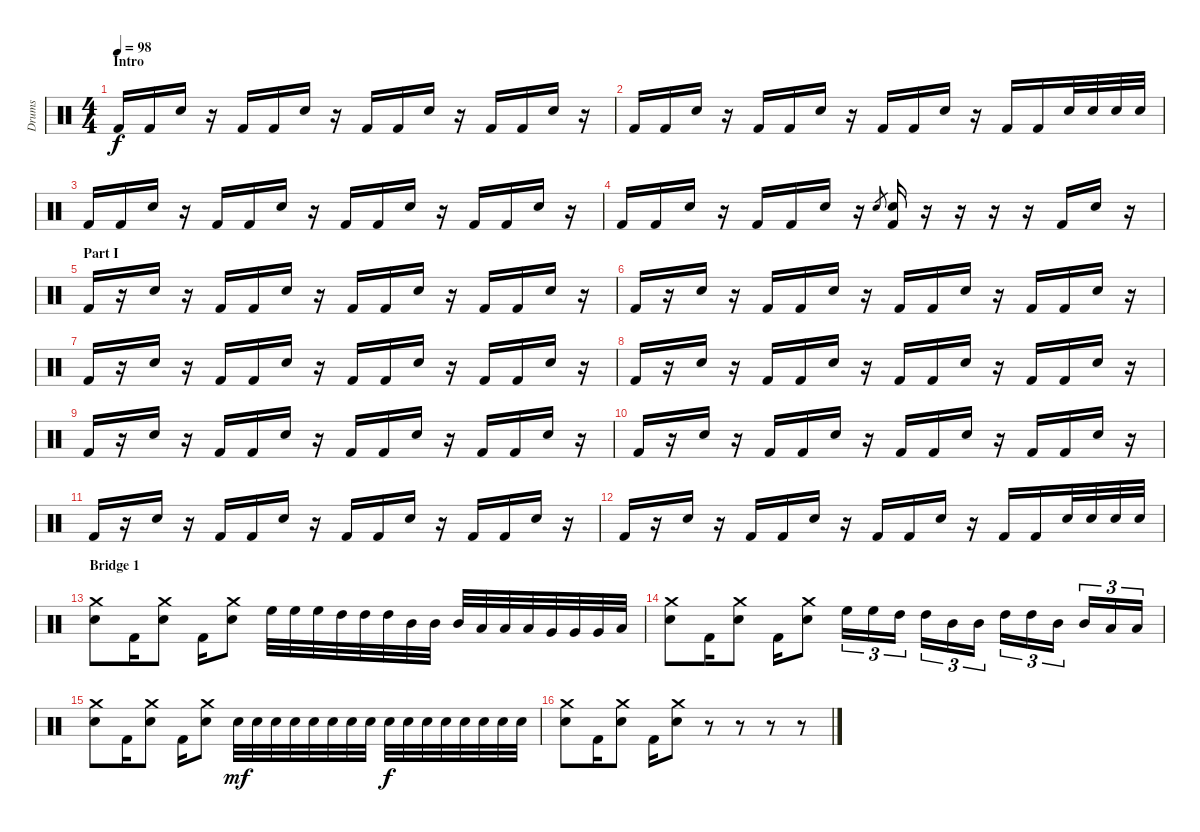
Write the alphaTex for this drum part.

\track ("Drums" "Drums") {instrument percussion}
\staff {score}
\articulation defaults
\ts (4 4)
\section ("" "Intro")
\tempo 98
\clef neutral
\ks c "Kick (hit) 2".16{dy f} "Kick (hit) 2".16 "Electric Snare (hit)".16
r.16 "Kick (hit) 2".16 "Kick (hit) 2".16 "Electric Snare (hit)".16 r.16 "Kick (hit) 2".16 "Kick (hit) 2".16 "Electric Snare (hit)".16 r.16 "Kick (hit) 2".16 "Kick (hit) 2".16 "Electric Snare (hit)".16 r.16 |
"Kick (hit) 2".16 "Kick (hit) 2".16 "Electric Snare (hit)".16 r.16 "Kick (hit) 2".16 "Kick (hit) 2".16 "Electric Snare (hit)".16 r.16 "Kick (hit) 2".16 "Kick (hit) 2".16 "Electric Snare (hit)".16 r.16 "Kick (hit) 2".16 "Kick (hit) 2".16 "Electric Snare (hit)".32 "Electric Snare (hit)".32 "Electric Snare (hit)".32 "Electric Snare (hit)".32 |
"Kick (hit) 2".16 "Kick (hit) 2".16 "Electric Snare (hit)".16 r.16 "Kick (hit) 2".16 "Kick (hit) 2".16 "Electric Snare (hit)".16 r.16 "Kick (hit) 2".16 "Kick (hit) 2".16 "Electric Snare (hit)".16 r.16 "Kick (hit) 2".16 "Kick (hit) 2".16 "Electric Snare (hit)".16 r.16 |
"Kick (hit) 2".16 "Kick (hit) 2".16 "Electric Snare (hit)".16 r.16 "Kick (hit) 2".16 "Kick (hit) 2".16 "Electric Snare (hit)".16 r.16 "Electric Snare (hit)".8{gr} ("Electric Snare (hit)" "Kick (hit) 2").16 r.16 r.16 r.16 r.16 "Kick (hit) 2".16 "Electric Snare (hit)".16 r.16 |
\section ("" "Part I")
"Kick (hit) 2".16 r.16 "Electric Snare (hit)".16 r.16 "Kick (hit) 2".16 "Kick (hit) 2".16 "Electric Snare (hit)".16 r.16 "Kick (hit) 2".16 "Kick (hit) 2".16 "Electric Snare (hit)".16 r.16 "Kick (hit) 2".16 "Kick (hit) 2".16 "Electric Snare (hit)".16 r.16 |
"Kick (hit) 2".16 r.16 "Electric Snare (hit)".16 r.16 "Kick (hit) 2".16 "Kick (hit) 2".16 "Electric Snare (hit)".16 r.16 "Kick (hit) 2".16 "Kick (hit) 2".16 "Electric Snare (hit)".16 r.16 "Kick (hit) 2".16 "Kick (hit) 2".16 "Electric Snare (hit)".16 r.16 |
"Kick (hit) 2".16 r.16 "Electric Snare (hit)".16 r.16 "Kick (hit) 2".16 "Kick (hit) 2".16 "Electric Snare (hit)".16 r.16 "Kick (hit) 2".16 "Kick (hit) 2".16 "Electric Snare (hit)".16 r.16 "Kick (hit) 2".16 "Kick (hit) 2".16 "Electric Snare (hit)".16 r.16 |
"Kick (hit) 2".16 r.16 "Electric Snare (hit)".16 r.16 "Kick (hit) 2".16 "Kick (hit) 2".16 "Electric Snare (hit)".16 r.16 "Kick (hit) 2".16 "Kick (hit) 2".16 "Electric Snare (hit)".16 r.16 "Kick (hit) 2".16 "Kick (hit) 2".16 "Electric Snare (hit)".16 r.16 |
"Kick (hit) 2".16 r.16 "Electric Snare (hit)".16 r.16 "Kick (hit) 2".16 "Kick (hit) 2".16 "Electric Snare (hit)".16 r.16 "Kick (hit) 2".16 "Kick (hit) 2".16 "Electric Snare (hit)".16 r.16 "Kick (hit) 2".16 "Kick (hit) 2".16 "Electric Snare (hit)".16 r.16 |
"Kick (hit) 2".16 r.16 "Electric Snare (hit)".16 r.16 "Kick (hit) 2".16 "Kick (hit) 2".16 "Electric Snare (hit)".16 r.16 "Kick (hit) 2".16 "Kick (hit) 2".16 "Electric Snare (hit)".16 r.16 "Kick (hit) 2".16 "Kick (hit) 2".16 "Electric Snare (hit)".16 r.16 |
"Kick (hit) 2".16 r.16 "Electric Snare (hit)".16 r.16 "Kick (hit) 2".16 "Kick (hit) 2".16 "Electric Snare (hit)".16 r.16 "Kick (hit) 2".16 "Kick (hit) 2".16 "Electric Snare (hit)".16 r.16 "Kick (hit) 2".16 "Kick (hit) 2".16 "Electric Snare (hit)".16 r.16 |
"Kick (hit) 2".16 r.16 "Electric Snare (hit)".16 r.16 "Kick (hit) 2".16 "Kick (hit) 2".16 "Electric Snare (hit)".16 r.16 "Kick (hit) 2".16 "Kick (hit) 2".16 "Electric Snare (hit)".16 r.16 "Kick (hit) 2".16 "Kick (hit) 2".16 "Electric Snare (hit)".32 "Electric Snare (hit)".32 "Electric Snare (hit)".32 "Electric Snare (hit)".32 |
\section ("" "Bridge 1")
("Crash medium (hit)" "Electric Snare (hit)").8 "Kick (hit) 2".16 ("Crash medium (hit)" "Electric Snare (hit)").8 "Kick (hit) 2".16 ("Crash medium (hit)" "Electric Snare (hit)").8 "High Floor Tom (hit)".32 "High Floor Tom (hit)".32 "High Floor Tom (hit)".32 "High Tom (hit)".32 "High Tom (hit)".32 "High Tom (hit)".32 "Mid Tom (hit)".32 "Mid Tom (hit)".32 "Mid Tom (hit)".32 "Low Tom (hit)".32 "Low Tom (hit)".32 "Low Tom (hit)".32 "Very Low Tom (hit)".32 "Very Low Tom (hit)".32 "Very Low Tom (hit)".32 "Low Floor Tom (hit)".32 |
("Crash medium (hit)" "Electric Snare (hit)").8 "Kick (hit) 2".16 ("Crash medium (hit)" "Electric Snare (hit)").8 "Kick (hit) 2".16 ("Crash medium (hit)" "Electric Snare (hit)").8 "High Floor Tom (hit)".16{tu (3 2)} "High Floor Tom (hit)".16{tu (3 2)} "High Tom (hit)".16{tu (3 2)} "High Tom (hit)".16{tu (3 2)} "Mid Tom (hit)".16{tu (3 2)} "Mid Tom (hit)".16{tu (3 2)} "High Tom (hit)".16{tu (3 2)} "High Tom (hit)".16{tu (3 2)} "Mid Tom (hit)".16{tu (3 2)} "Mid Tom (hit)".16{tu (3 2)} "Low Tom (hit)".16{tu (3 2)} "Low Tom (hit)".16{tu (3 2)} |
("Crash medium (hit)" "Electric Snare (hit)").8 "Kick (hit) 2".16 ("Crash medium (hit)" "Electric Snare (hit)").8 "Kick (hit) 2".16 ("Crash medium (hit)" "Electric Snare (hit)").8 "Electric Snare (hit)".32{dy mf} "Electric Snare (hit)".32 "Electric Snare (hit)".32 "Electric Snare (hit)".32 "Electric Snare (hit)".32 "Electric Snare (hit)".32 "Electric Snare (hit)".32 "Electric Snare (hit)".32 "Electric Snare (hit)".32{dy f} "Electric Snare (hit)".32 "Electric Snare (hit)".32 "Electric Snare (hit)".32 "Electric Snare (hit)".32 "Electric Snare (hit)".32 "Electric Snare (hit)".32 "Electric Snare (hit)".32 |
("Crash medium (hit)" "Electric Snare (hit)").8 "Kick (hit) 2".16 ("Crash medium (hit)" "Electric Snare (hit)").8 "Kick (hit) 2".16 ("Crash medium (hit)" "Electric Snare (hit)").8 r.8 r.8 r.8 r.8
